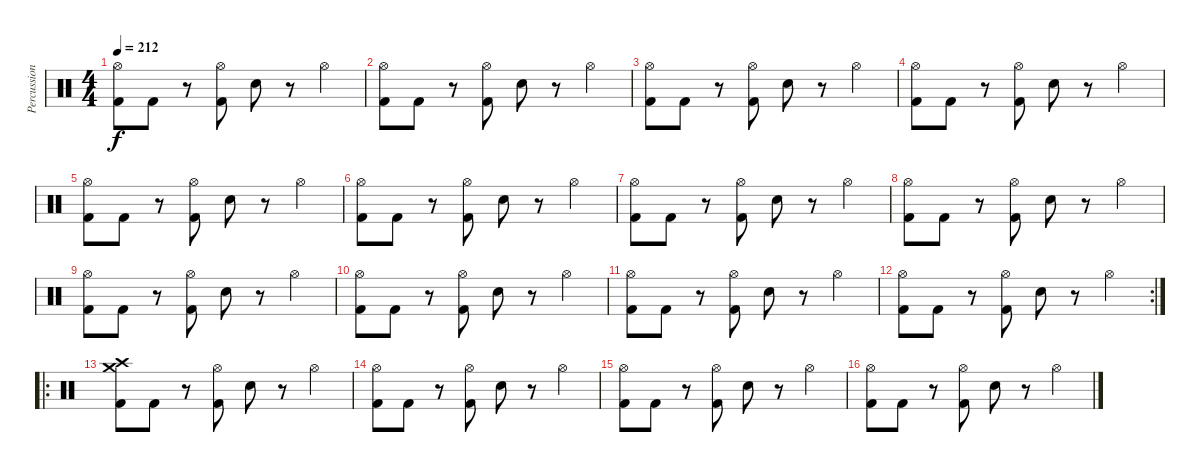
\track ("Percussion" "Percussion") {instrument percussion}
\staff {score}
\articulation defaults
\ts (4 4)
\tempo 212
\clef neutral
\ks c
("Hi-Hat (open)" "Kick (hit) 2").8{dy f} "Kick (hit) 2".8 r.8 ("Hi-Hat (open)" "Kick (hit) 2").8 "Snare (hit) 2".8 r.8 "Hi-Hat (open)".4 |
("Hi-Hat (open)" "Kick (hit) 2").8 "Kick (hit) 2".8 r.8 ("Hi-Hat (open)" "Kick (hit) 2").8 "Snare (hit) 2".8 r.8 "Hi-Hat (open)".4 |
("Hi-Hat (open)" "Kick (hit) 2").8 "Kick (hit) 2".8 r.8 ("Hi-Hat (open)" "Kick (hit) 2").8 "Snare (hit) 2".8 r.8 "Hi-Hat (open)".4 |
("Hi-Hat (open)" "Kick (hit) 2").8 "Kick (hit) 2".8 r.8 ("Hi-Hat (open)" "Kick (hit) 2").8 "Snare (hit) 2".8 r.8 "Hi-Hat (open)".4 |
("Hi-Hat (open)" "Kick (hit) 2").8 "Kick (hit) 2".8 r.8 ("Hi-Hat (open)" "Kick (hit) 2").8 "Snare (hit) 2".8 r.8 "Hi-Hat (open)".4 |
("Hi-Hat (open)" "Kick (hit) 2").8 "Kick (hit) 2".8 r.8 ("Hi-Hat (open)" "Kick (hit) 2").8 "Snare (hit) 2".8 r.8 "Hi-Hat (open)".4 |
("Hi-Hat (open)" "Kick (hit) 2").8 "Kick (hit) 2".8 r.8 ("Hi-Hat (open)" "Kick (hit) 2").8 "Snare (hit) 2".8 r.8 "Hi-Hat (open)".4 |
("Hi-Hat (open)" "Kick (hit) 2").8 "Kick (hit) 2".8 r.8 ("Hi-Hat (open)" "Kick (hit) 2").8 "Snare (hit) 2".8 r.8 "Hi-Hat (open)".4 |
("Hi-Hat (open)" "Kick (hit) 2").8 "Kick (hit) 2".8 r.8 ("Hi-Hat (open)" "Kick (hit) 2").8 "Snare (hit) 2".8 r.8 "Hi-Hat (open)".4 |
("Hi-Hat (open)" "Kick (hit) 2").8 "Kick (hit) 2".8 r.8 ("Hi-Hat (open)" "Kick (hit) 2").8 "Snare (hit) 2".8 r.8 "Hi-Hat (open)".4 |
("Hi-Hat (open)" "Kick (hit) 2").8 "Kick (hit) 2".8 r.8 ("Hi-Hat (open)" "Kick (hit) 2").8 "Snare (hit) 2".8 r.8 "Hi-Hat (open)".4 |
\rc 2
("Hi-Hat (open)" "Kick (hit) 2").8 "Kick (hit) 2".8 r.8 ("Hi-Hat (open)" "Kick (hit) 2").8 "Snare (hit) 2".8 r.8 "Hi-Hat (open)".4 |
\ro
("Crash medium (hit)" "Crash high (hit)" "Kick (hit) 2").8 "Kick (hit) 2".8 r.8 ("Hi-Hat (open)" "Kick (hit) 2").8 "Snare (hit) 2".8 r.8 "Hi-Hat (open)".4 |
("Hi-Hat (open)" "Kick (hit) 2").8 "Kick (hit) 2".8 r.8 ("Hi-Hat (open)" "Kick (hit) 2").8 "Snare (hit) 2".8 r.8 "Hi-Hat (open)".4 |
("Hi-Hat (open)" "Kick (hit) 2").8 "Kick (hit) 2".8 r.8 ("Hi-Hat (open)" "Kick (hit) 2").8 "Snare (hit) 2".8 r.8 "Hi-Hat (open)".4 |
("Hi-Hat (open)" "Kick (hit) 2").8 "Kick (hit) 2".8 r.8 ("Hi-Hat (open)" "Kick (hit) 2").8 "Snare (hit) 2".8 r.8 "Hi-Hat (open)".4
